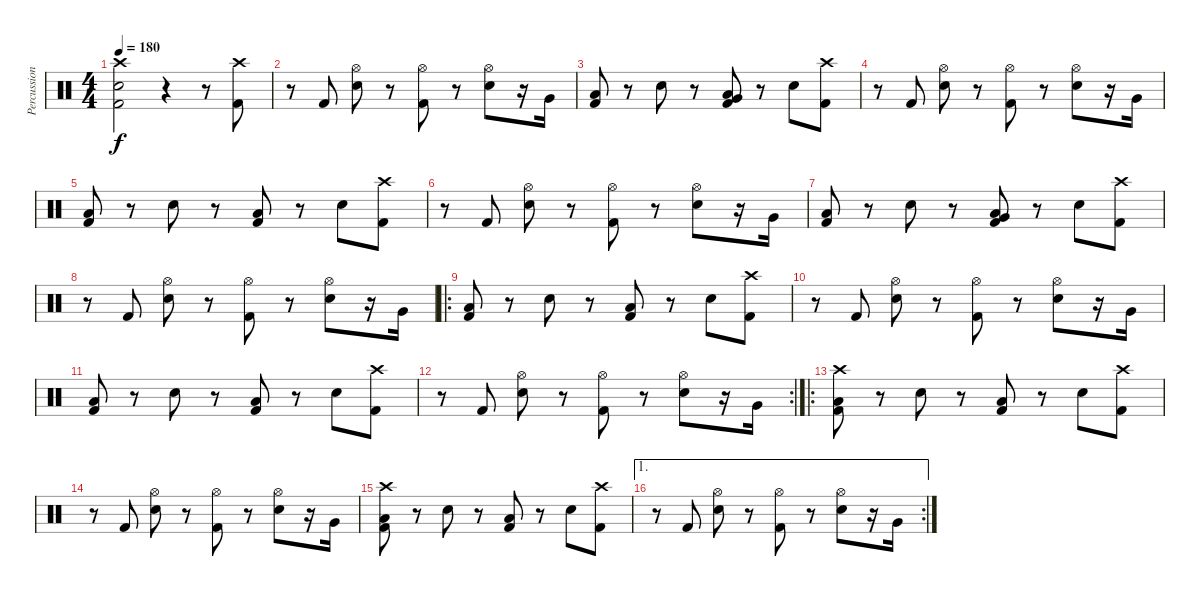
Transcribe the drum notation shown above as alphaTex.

\track ("Percussion" "Percussion") {instrument percussion}
\staff {score}
\articulation defaults
\ts (4 4)
\tempo 180
\clef neutral
\ks c
("Crash high (hit)" "Electric Snare (hit)" "Kick (hit) 2").2{dy f} r.4 r.8 ("Crash high (hit)" "Kick (hit) 2").8 |
r.8 "Kick (hit) 2".8 ("Hi-Hat (open)" "Electric Snare (hit)").8 r.8 ("Hi-Hat (open)" "Kick (hit) 2").8 r.8 ("Hi-Hat (open)" "Electric Snare (hit)").8 r.16 "Very Low Tom (hit)".16 |
("Low Floor Tom (hit)" "Kick (hit) 2").8 r.8 "Electric Snare (hit)".8 r.8 ("Low Floor Tom (hit)" "Very Low Tom (hit)" "Kick (hit) 2").8 r.8 "Electric Snare (hit)".8 ("Crash high (hit)" "Kick (hit) 2").8 |
r.8 "Kick (hit) 2".8 ("Hi-Hat (open)" "Electric Snare (hit)").8 r.8 ("Hi-Hat (open)" "Kick (hit) 2").8 r.8 ("Hi-Hat (open)" "Electric Snare (hit)").8 r.16 "Very Low Tom (hit)".16 |
("Low Floor Tom (hit)" "Kick (hit) 2").8 r.8 "Electric Snare (hit)".8 r.8 ("Low Floor Tom (hit)" "Kick (hit) 2").8 r.8 "Electric Snare (hit)".8 ("Crash high (hit)" "Kick (hit) 2").8 |
r.8 "Kick (hit) 2".8 ("Hi-Hat (open)" "Electric Snare (hit)").8 r.8 ("Hi-Hat (open)" "Kick (hit) 2").8 r.8 ("Hi-Hat (open)" "Electric Snare (hit)").8 r.16 "Very Low Tom (hit)".16 |
("Low Floor Tom (hit)" "Kick (hit) 2").8 r.8 "Electric Snare (hit)".8 r.8 ("Low Floor Tom (hit)" "Very Low Tom (hit)" "Kick (hit) 2").8 r.8 "Electric Snare (hit)".8 ("Crash high (hit)" "Kick (hit) 2").8 |
r.8 "Kick (hit) 2".8 ("Hi-Hat (open)" "Electric Snare (hit)").8 r.8 ("Hi-Hat (open)" "Kick (hit) 2").8 r.8 ("Hi-Hat (open)" "Electric Snare (hit)").8 r.16 "Very Low Tom (hit)".16 |
\ro
("Low Floor Tom (hit)" "Kick (hit) 2").8 r.8 "Electric Snare (hit)".8 r.8 ("Low Floor Tom (hit)" "Kick (hit) 2").8 r.8 "Electric Snare (hit)".8 ("Crash high (hit)" "Kick (hit) 2").8 |
r.8 "Kick (hit) 2".8 ("Hi-Hat (open)" "Electric Snare (hit)").8 r.8 ("Hi-Hat (open)" "Kick (hit) 2").8 r.8 ("Hi-Hat (open)" "Electric Snare (hit)").8 r.16 "Very Low Tom (hit)".16 |
("Low Floor Tom (hit)" "Kick (hit) 2").8 r.8 "Electric Snare (hit)".8 r.8 ("Low Floor Tom (hit)" "Kick (hit) 2").8 r.8 "Electric Snare (hit)".8 ("Crash high (hit)" "Kick (hit) 2").8 |
\rc 2
r.8 "Kick (hit) 2".8 ("Hi-Hat (open)" "Electric Snare (hit)").8 r.8 ("Hi-Hat (open)" "Kick (hit) 2").8 r.8 ("Hi-Hat (open)" "Electric Snare (hit)").8 r.16 "Very Low Tom (hit)".16 |
\ro
("Crash high (hit)" "Low Floor Tom (hit)" "Kick (hit) 2").8 r.8 "Electric Snare (hit)".8 r.8 ("Low Floor Tom (hit)" "Kick (hit) 2").8 r.8 "Electric Snare (hit)".8 ("Crash high (hit)" "Kick (hit) 2").8 |
r.8 "Kick (hit) 2".8 ("Hi-Hat (open)" "Electric Snare (hit)").8 r.8 ("Hi-Hat (open)" "Kick (hit) 2").8 r.8 ("Hi-Hat (open)" "Electric Snare (hit)").8 r.16 "Very Low Tom (hit)".16 |
("Crash high (hit)" "Low Floor Tom (hit)" "Kick (hit) 2").8 r.8 "Electric Snare (hit)".8 r.8 ("Low Floor Tom (hit)" "Kick (hit) 2").8 r.8 "Electric Snare (hit)".8 ("Crash high (hit)" "Kick (hit) 2").8 |
\ae 1
\rc 2
r.8 "Kick (hit) 2".8 ("Hi-Hat (open)" "Electric Snare (hit)").8 r.8 ("Hi-Hat (open)" "Kick (hit) 2").8 r.8 ("Hi-Hat (open)" "Electric Snare (hit)").8 r.16 "Very Low Tom (hit)".16
